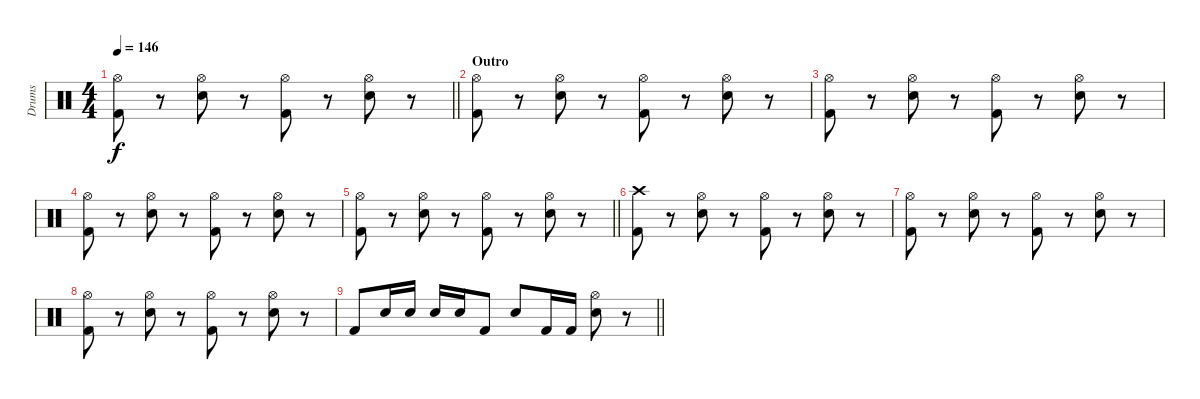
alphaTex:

\track ("Drums" "Drums") {instrument percussion}
\staff {score}
\articulation defaults
\ts (4 4)
\tempo 146
\clef neutral
\barLineRight lightlight
\ks c
("Hi-Hat (open)" "Kick (hit) 2").8{dy f} r.8 ("Hi-Hat (open)" "Electric Snare (hit)").8 r.8 ("Hi-Hat (open)" "Kick (hit) 2").8 r.8 ("Hi-Hat (open)" "Electric Snare (hit)").8 r.8 |
\section ("" "Outro")
("Hi-Hat (open)" "Kick (hit) 2").8 r.8 ("Hi-Hat (open)" "Electric Snare (hit)").8 r.8 ("Hi-Hat (open)" "Kick (hit) 2").8 r.8 ("Hi-Hat (open)" "Electric Snare (hit)").8 r.8 |
("Hi-Hat (open)" "Kick (hit) 2").8 r.8 ("Hi-Hat (open)" "Electric Snare (hit)").8 r.8 ("Hi-Hat (open)" "Kick (hit) 2").8 r.8 ("Hi-Hat (open)" "Electric Snare (hit)").8 r.8 |
("Hi-Hat (open)" "Kick (hit) 2").8 r.8 ("Hi-Hat (open)" "Electric Snare (hit)").8 r.8 ("Hi-Hat (open)" "Kick (hit) 2").8 r.8 ("Hi-Hat (open)" "Electric Snare (hit)").8 r.8 |
\barLineRight lightlight
("Hi-Hat (open)" "Kick (hit) 2").8 r.8 ("Hi-Hat (open)" "Electric Snare (hit)").8 r.8 ("Hi-Hat (open)" "Kick (hit) 2").8 r.8 ("Hi-Hat (open)" "Electric Snare (hit)").8 r.8 |
("Crash high (hit)" "Kick (hit) 2").8 r.8 ("Hi-Hat (open)" "Electric Snare (hit)").8 r.8 ("Hi-Hat (open)" "Kick (hit) 2").8 r.8 ("Hi-Hat (open)" "Electric Snare (hit)").8 r.8 |
("Hi-Hat (open)" "Kick (hit) 2").8 r.8 ("Hi-Hat (open)" "Electric Snare (hit)").8 r.8 ("Hi-Hat (open)" "Kick (hit) 2").8 r.8 ("Hi-Hat (open)" "Electric Snare (hit)").8 r.8 |
("Hi-Hat (open)" "Kick (hit) 2").8 r.8 ("Hi-Hat (open)" "Electric Snare (hit)").8 r.8 ("Hi-Hat (open)" "Kick (hit) 2").8 r.8 ("Hi-Hat (open)" "Electric Snare (hit)").8 r.8 |
\barLineRight lightlight "Kick (hit) 2".8 "Electric Snare (hit)".16 "Electric Snare (hit)".16 "Electric Snare (hit)".16 "Electric Snare (hit)".16 "Kick (hit) 2".8 "Electric Snare (hit)".8 "Kick (hit) 2".16 "Kick (hit) 2".16
("Hi-Hat (open)" "Electric Snare (hit)").8 r.8
